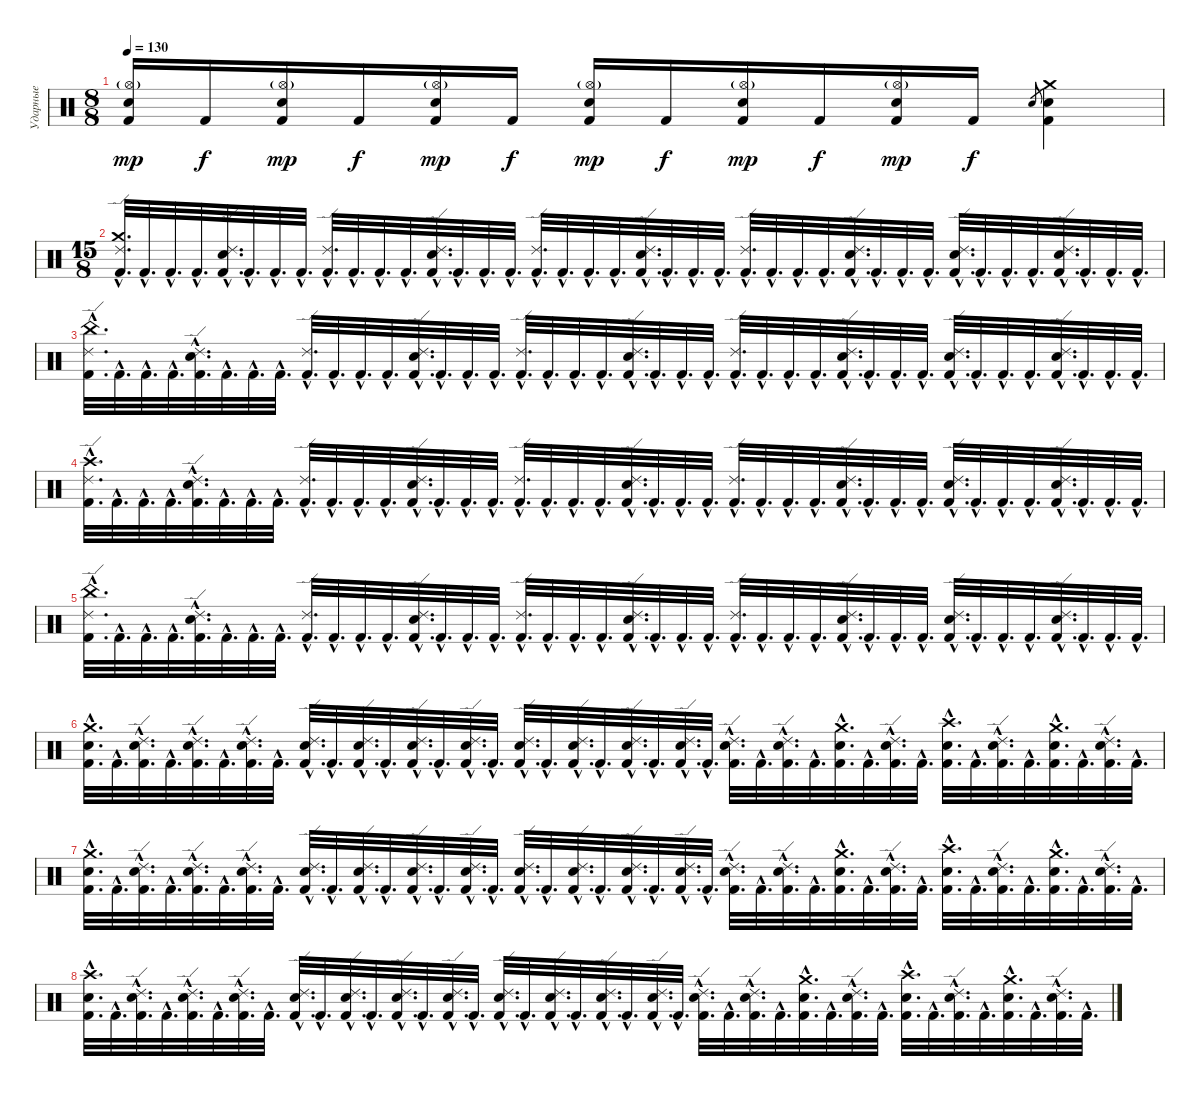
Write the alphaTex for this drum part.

\track ("Ударные" "Ударные") {instrument percussion}
\staff {score}
\articulation defaults
\ts (8 8)
\tempo 130
\clef neutral
\ks c
("Electric Snare (hit)" "Hi-Hat (open)"{g} "Kick (hit) 2").16{dy mp} "Kick (hit) 2".16{dy f} ("Electric Snare (hit)" "Hi-Hat (open)"{g} "Kick (hit) 2").16{dy mp} "Kick (hit) 2".16{dy f} ("Electric Snare (hit)" "Hi-Hat (open)"{g} "Kick (hit) 2").16{dy mp} "Kick (hit) 2".16{dy f} ("Electric Snare (hit)" "Hi-Hat (open)"{g} "Kick (hit) 2").16{dy mp} "Kick (hit) 2".16{dy f} ("Electric Snare (hit)" "Hi-Hat (open)"{g} "Kick (hit) 2").16{dy mp} "Kick (hit) 2".16{dy f} ("Electric Snare (hit)" "Hi-Hat (open)"{g} "Kick (hit) 2").16{dy mp} "Kick (hit) 2".16{dy f} "Electric Snare (hit)".8{gr} ("Electric Snare (hit)" "Crash medium (hit)" "Kick (hit) 2").4 |
\ts (15 8)
("Crash medium (hit)"{hac} "Ride (edge) 2"{hac} "Kick (hit) 2"{hac}).32{d} "Kick (hit) 2"{hac}.32{d} "Kick (hit) 2"{hac}.32{d} "Kick (hit) 2"{hac}.32{d} ("Electric Snare (hit)"{hac} "Ride (edge) 2"{hac} "Kick (hit) 2"{hac}).32{d} "Kick (hit) 2"{hac}.32{d} "Kick (hit) 2"{hac}.32{d} "Kick (hit) 2"{hac}.32{d} ("Ride (edge) 2"{hac} "Kick (hit) 2"{hac}).32{d} "Kick (hit) 2"{hac}.32{d} "Kick (hit) 2"{hac}.32{d} "Kick (hit) 2"{hac}.32{d} ("Electric Snare (hit)"{hac} "Ride (edge) 2"{hac} "Kick (hit) 2"{hac}).32{d} "Kick (hit) 2"{hac}.32{d} "Kick (hit) 2"{hac}.32{d} "Kick (hit) 2"{hac}.32{d} ("Ride (edge) 2"{hac} "Kick (hit) 2"{hac}).32{d} "Kick (hit) 2"{hac}.32{d} "Kick (hit) 2"{hac}.32{d} "Kick (hit) 2"{hac}.32{d} ("Electric Snare (hit)"{hac} "Ride (edge) 2"{hac} "Kick (hit) 2"{hac}).32{d} "Kick (hit) 2"{hac}.32{d} "Kick (hit) 2"{hac}.32{d} "Kick (hit) 2"{hac}.32{d} ("Ride (edge) 2"{hac} "Kick (hit) 2"{hac}).32{d} "Kick (hit) 2"{hac}.32{d} "Kick (hit) 2"{hac}.32{d} "Kick (hit) 2"{hac}.32{d} ("Electric Snare (hit)"{hac} "Ride (edge) 2"{hac} "Kick (hit) 2"{hac}).32{d} "Kick (hit) 2"{hac}.32{d} "Kick (hit) 2"{hac}.32{d} "Kick (hit) 2"{hac}.32{d} ("Electric Snare (hit)"{hac} "Ride (edge) 2"{hac} "Kick (hit) 2"{hac}).32{d} "Kick (hit) 2"{hac}.32{d} "Kick (hit) 2"{hac}.32{d} "Kick (hit) 2"{hac}.32{d} ("Electric Snare (hit)"{hac} "Ride (edge) 2"{hac} "Kick (hit) 2"{hac}).32{d} "Kick (hit) 2"{hac}.32{d} "Kick (hit) 2"{hac}.32{d} "Kick (hit) 2"{hac}.32{d} |
("China (hit)"{hac} "Ride (edge) 2"{hac} "Kick (hit) 2"{hac}).32{d} "Kick (hit) 2"{hac}.32{d} "Kick (hit) 2"{hac}.32{d} "Kick (hit) 2"{hac}.32{d} ("Electric Snare (hit)"{hac} "Ride (edge) 2"{hac} "Kick (hit) 2"{hac}).32{d} "Kick (hit) 2"{hac}.32{d} "Kick (hit) 2"{hac}.32{d} "Kick (hit) 2"{hac}.32{d} ("Ride (edge) 2"{hac} "Kick (hit) 2"{hac}).32{d} "Kick (hit) 2"{hac}.32{d} "Kick (hit) 2"{hac}.32{d} "Kick (hit) 2"{hac}.32{d} ("Electric Snare (hit)"{hac} "Ride (edge) 2"{hac} "Kick (hit) 2"{hac}).32{d} "Kick (hit) 2"{hac}.32{d} "Kick (hit) 2"{hac}.32{d} "Kick (hit) 2"{hac}.32{d} ("Ride (edge) 2"{hac} "Kick (hit) 2"{hac}).32{d} "Kick (hit) 2"{hac}.32{d} "Kick (hit) 2"{hac}.32{d} "Kick (hit) 2"{hac}.32{d} ("Electric Snare (hit)"{hac} "Ride (edge) 2"{hac} "Kick (hit) 2"{hac}).32{d} "Kick (hit) 2"{hac}.32{d} "Kick (hit) 2"{hac}.32{d} "Kick (hit) 2"{hac}.32{d} ("Ride (edge) 2"{hac} "Kick (hit) 2"{hac}).32{d} "Kick (hit) 2"{hac}.32{d} "Kick (hit) 2"{hac}.32{d} "Kick (hit) 2"{hac}.32{d} ("Electric Snare (hit)"{hac} "Ride (edge) 2"{hac} "Kick (hit) 2"{hac}).32{d} "Kick (hit) 2"{hac}.32{d} "Kick (hit) 2"{hac}.32{d} "Kick (hit) 2"{hac}.32{d} ("Electric Snare (hit)"{hac} "Ride (edge) 2"{hac} "Kick (hit) 2"{hac}).32{d} "Kick (hit) 2"{hac}.32{d} "Kick (hit) 2"{hac}.32{d} "Kick (hit) 2"{hac}.32{d} ("Electric Snare (hit)"{hac} "Ride (edge) 2"{hac} "Kick (hit) 2"{hac}).32{d} "Kick (hit) 2"{hac}.32{d} "Kick (hit) 2"{hac}.32{d} "Kick (hit) 2"{hac}.32{d} |
("Crash high (hit)"{hac} "Ride (edge) 2"{hac} "Kick (hit) 2"{hac}).32{d} "Kick (hit) 2"{hac}.32{d} "Kick (hit) 2"{hac}.32{d} "Kick (hit) 2"{hac}.32{d} ("Electric Snare (hit)"{hac} "Ride (edge) 2"{hac} "Kick (hit) 2"{hac}).32{d} "Kick (hit) 2"{hac}.32{d} "Kick (hit) 2"{hac}.32{d} "Kick (hit) 2"{hac}.32{d} ("Ride (edge) 2"{hac} "Kick (hit) 2"{hac}).32{d} "Kick (hit) 2"{hac}.32{d} "Kick (hit) 2"{hac}.32{d} "Kick (hit) 2"{hac}.32{d} ("Electric Snare (hit)"{hac} "Ride (edge) 2"{hac} "Kick (hit) 2"{hac}).32{d} "Kick (hit) 2"{hac}.32{d} "Kick (hit) 2"{hac}.32{d} "Kick (hit) 2"{hac}.32{d} ("Ride (edge) 2"{hac} "Kick (hit) 2"{hac}).32{d} "Kick (hit) 2"{hac}.32{d} "Kick (hit) 2"{hac}.32{d} "Kick (hit) 2"{hac}.32{d} ("Electric Snare (hit)"{hac} "Ride (edge) 2"{hac} "Kick (hit) 2"{hac}).32{d} "Kick (hit) 2"{hac}.32{d} "Kick (hit) 2"{hac}.32{d} "Kick (hit) 2"{hac}.32{d} ("Ride (edge) 2"{hac} "Kick (hit) 2"{hac}).32{d} "Kick (hit) 2"{hac}.32{d} "Kick (hit) 2"{hac}.32{d} "Kick (hit) 2"{hac}.32{d} ("Electric Snare (hit)"{hac} "Ride (edge) 2"{hac} "Kick (hit) 2"{hac}).32{d} "Kick (hit) 2"{hac}.32{d} "Kick (hit) 2"{hac}.32{d} "Kick (hit) 2"{hac}.32{d} ("Electric Snare (hit)"{hac} "Ride (edge) 2"{hac} "Kick (hit) 2"{hac}).32{d} "Kick (hit) 2"{hac}.32{d} "Kick (hit) 2"{hac}.32{d} "Kick (hit) 2"{hac}.32{d} ("Electric Snare (hit)"{hac} "Ride (edge) 2"{hac} "Kick (hit) 2"{hac}).32{d} "Kick (hit) 2"{hac}.32{d} "Kick (hit) 2"{hac}.32{d} "Kick (hit) 2"{hac}.32{d} |
("China (hit)"{hac} "Ride (edge) 2"{hac} "Kick (hit) 2"{hac}).32{d} "Kick (hit) 2"{hac}.32{d} "Kick (hit) 2"{hac}.32{d} "Kick (hit) 2"{hac}.32{d} ("Electric Snare (hit)"{hac} "Ride (edge) 2"{hac} "Kick (hit) 2"{hac}).32{d} "Kick (hit) 2"{hac}.32{d} "Kick (hit) 2"{hac}.32{d} "Kick (hit) 2"{hac}.32{d} ("Ride (edge) 2"{hac} "Kick (hit) 2"{hac}).32{d} "Kick (hit) 2"{hac}.32{d} "Kick (hit) 2"{hac}.32{d} "Kick (hit) 2"{hac}.32{d} ("Electric Snare (hit)"{hac} "Ride (edge) 2"{hac} "Kick (hit) 2"{hac}).32{d} "Kick (hit) 2"{hac}.32{d} "Kick (hit) 2"{hac}.32{d} "Kick (hit) 2"{hac}.32{d} ("Ride (edge) 2"{hac} "Kick (hit) 2"{hac}).32{d} "Kick (hit) 2"{hac}.32{d} "Kick (hit) 2"{hac}.32{d} "Kick (hit) 2"{hac}.32{d} ("Electric Snare (hit)"{hac} "Ride (edge) 2"{hac} "Kick (hit) 2"{hac}).32{d} "Kick (hit) 2"{hac}.32{d} "Kick (hit) 2"{hac}.32{d} "Kick (hit) 2"{hac}.32{d} ("Ride (edge) 2"{hac} "Kick (hit) 2"{hac}).32{d} "Kick (hit) 2"{hac}.32{d} "Kick (hit) 2"{hac}.32{d} "Kick (hit) 2"{hac}.32{d} ("Electric Snare (hit)"{hac} "Ride (edge) 2"{hac} "Kick (hit) 2"{hac}).32{d} "Kick (hit) 2"{hac}.32{d} "Kick (hit) 2"{hac}.32{d} "Kick (hit) 2"{hac}.32{d} ("Electric Snare (hit)"{hac} "Ride (edge) 2"{hac} "Kick (hit) 2"{hac}).32{d} "Kick (hit) 2"{hac}.32{d} "Kick (hit) 2"{hac}.32{d} "Kick (hit) 2"{hac}.32{d} ("Electric Snare (hit)"{hac} "Ride (edge) 2"{hac} "Kick (hit) 2"{hac}).32{d} "Kick (hit) 2"{hac}.32{d} "Kick (hit) 2"{hac}.32{d} "Kick (hit) 2"{hac}.32{d} |
("Electric Snare (hit)"{hac} "Crash medium (hit)"{hac} "Kick (hit) 2"{hac}).32{d} "Kick (hit) 2"{hac}.32{d} ("Electric Snare (hit)"{hac} "Ride (edge) 2"{hac} "Kick (hit) 2"{hac}).32{d} "Kick (hit) 2"{hac}.32{d} ("Electric Snare (hit)"{hac} "Ride (edge) 2"{hac} "Kick (hit) 2"{hac}).32{d} "Kick (hit) 2"{hac}.32{d} ("Electric Snare (hit)"{hac} "Ride (edge) 2"{hac} "Kick (hit) 2"{hac}).32{d} "Kick (hit) 2"{hac}.32{d} ("Electric Snare (hit)"{hac} "Ride (edge) 2"{hac} "Kick (hit) 2"{hac}).32{d} "Kick (hit) 2"{hac}.32{d} ("Electric Snare (hit)"{hac} "Ride (edge) 2"{hac} "Kick (hit) 2"{hac}).32{d} "Kick (hit) 2"{hac}.32{d} ("Electric Snare (hit)"{hac} "Ride (edge) 2"{hac} "Kick (hit) 2"{hac}).32{d} "Kick (hit) 2"{hac}.32{d} ("Electric Snare (hit)"{hac} "Ride (edge) 2"{hac} "Kick (hit) 2"{hac}).32{d} "Kick (hit) 2"{hac}.32{d} ("Electric Snare (hit)"{hac} "Ride (edge) 2"{hac} "Kick (hit) 2"{hac}).32{d} "Kick (hit) 2"{hac}.32{d} ("Electric Snare (hit)"{hac} "Ride (edge) 2"{hac} "Kick (hit) 2"{hac}).32{d} "Kick (hit) 2"{hac}.32{d} ("Electric Snare (hit)"{hac} "Ride (edge) 2"{hac} "Kick (hit) 2"{hac}).32{d} "Kick (hit) 2"{hac}.32{d} ("Electric Snare (hit)"{hac} "Ride (edge) 2"{hac} "Kick (hit) 2"{hac}).32{d} "Kick (hit) 2"{hac}.32{d} ("Electric Snare (hit)"{hac} "Ride (edge) 2"{hac} "Kick (hit) 2"{hac}).32{d} "Kick (hit) 2"{hac}.32{d} ("Electric Snare (hit)"{hac} "Ride (edge) 2"{hac} "Kick (hit) 2"{hac}).32{d} "Kick (hit) 2"{hac}.32{d} ("Electric Snare (hit)"{hac} "Crash medium (hit)"{hac} "Kick (hit) 2"{hac}).32{d} "Kick (hit) 2"{hac}.32{d} ("Electric Snare (hit)"{hac} "Ride (edge) 2"{hac} "Kick (hit) 2"{hac}).32{d} "Kick (hit) 2"{hac}.32{d} ("Electric Snare (hit)"{hac} "Crash high (hit)"{hac} "Kick (hit) 2"{hac}).32{d} "Kick (hit) 2"{hac}.32{d} ("Electric Snare (hit)"{hac} "Ride (edge) 2"{hac} "Kick (hit) 2"{hac}).32{d} "Kick (hit) 2"{hac}.32{d} ("Electric Snare (hit)"{hac} "Crash medium (hit)"{hac} "Kick (hit) 2"{hac}).32{d} "Kick (hit) 2"{hac}.32{d} ("Electric Snare (hit)"{hac} "Ride (edge) 2"{hac} "Kick (hit) 2"{hac}).32{d} "Kick (hit) 2"{hac}.32{d} |
("Electric Snare (hit)"{hac} "Crash medium (hit)"{hac} "Kick (hit) 2"{hac}).32{d} "Kick (hit) 2"{hac}.32{d} ("Electric Snare (hit)"{hac} "Ride (edge) 2"{hac} "Kick (hit) 2"{hac}).32{d} "Kick (hit) 2"{hac}.32{d} ("Electric Snare (hit)"{hac} "Ride (edge) 2"{hac} "Kick (hit) 2"{hac}).32{d} "Kick (hit) 2"{hac}.32{d} ("Electric Snare (hit)"{hac} "Ride (edge) 2"{hac} "Kick (hit) 2"{hac}).32{d} "Kick (hit) 2"{hac}.32{d} ("Electric Snare (hit)"{hac} "Ride (edge) 2"{hac} "Kick (hit) 2"{hac}).32{d} "Kick (hit) 2"{hac}.32{d} ("Electric Snare (hit)"{hac} "Ride (edge) 2"{hac} "Kick (hit) 2"{hac}).32{d} "Kick (hit) 2"{hac}.32{d} ("Electric Snare (hit)"{hac} "Ride (edge) 2"{hac} "Kick (hit) 2"{hac}).32{d} "Kick (hit) 2"{hac}.32{d} ("Electric Snare (hit)"{hac} "Ride (edge) 2"{hac} "Kick (hit) 2"{hac}).32{d} "Kick (hit) 2"{hac}.32{d} ("Electric Snare (hit)"{hac} "Ride (edge) 2"{hac} "Kick (hit) 2"{hac}).32{d} "Kick (hit) 2"{hac}.32{d} ("Electric Snare (hit)"{hac} "Ride (edge) 2"{hac} "Kick (hit) 2"{hac}).32{d} "Kick (hit) 2"{hac}.32{d} ("Electric Snare (hit)"{hac} "Ride (edge) 2"{hac} "Kick (hit) 2"{hac}).32{d} "Kick (hit) 2"{hac}.32{d} ("Electric Snare (hit)"{hac} "Ride (edge) 2"{hac} "Kick (hit) 2"{hac}).32{d} "Kick (hit) 2"{hac}.32{d} ("Electric Snare (hit)"{hac} "Ride (edge) 2"{hac} "Kick (hit) 2"{hac}).32{d} "Kick (hit) 2"{hac}.32{d} ("Electric Snare (hit)"{hac} "Ride (edge) 2"{hac} "Kick (hit) 2"{hac}).32{d} "Kick (hit) 2"{hac}.32{d} ("Electric Snare (hit)"{hac} "Crash medium (hit)"{hac} "Kick (hit) 2"{hac}).32{d} "Kick (hit) 2"{hac}.32{d} ("Electric Snare (hit)"{hac} "Ride (edge) 2"{hac} "Kick (hit) 2"{hac}).32{d} "Kick (hit) 2"{hac}.32{d} ("Electric Snare (hit)"{hac} "Crash high (hit)"{hac} "Kick (hit) 2"{hac}).32{d} "Kick (hit) 2"{hac}.32{d} ("Electric Snare (hit)"{hac} "Ride (edge) 2"{hac} "Kick (hit) 2"{hac}).32{d} "Kick (hit) 2"{hac}.32{d} ("Electric Snare (hit)"{hac} "Crash medium (hit)"{hac} "Kick (hit) 2"{hac}).32{d} "Kick (hit) 2"{hac}.32{d} ("Electric Snare (hit)"{hac} "Ride (edge) 2"{hac} "Kick (hit) 2"{hac}).32{d} "Kick (hit) 2"{hac}.32{d} |
("Electric Snare (hit)"{hac} "Crash high (hit)"{hac} "Kick (hit) 2"{hac}).32{d} "Kick (hit) 2"{hac}.32{d} ("Electric Snare (hit)"{hac} "Ride (edge) 2"{hac} "Kick (hit) 2"{hac}).32{d} "Kick (hit) 2"{hac}.32{d} ("Electric Snare (hit)"{hac} "Ride (edge) 2"{hac} "Kick (hit) 2"{hac}).32{d} "Kick (hit) 2"{hac}.32{d} ("Electric Snare (hit)"{hac} "Ride (edge) 2"{hac} "Kick (hit) 2"{hac}).32{d} "Kick (hit) 2"{hac}.32{d} ("Electric Snare (hit)"{hac} "Ride (edge) 2"{hac} "Kick (hit) 2"{hac}).32{d} "Kick (hit) 2"{hac}.32{d} ("Electric Snare (hit)"{hac} "Ride (edge) 2"{hac} "Kick (hit) 2"{hac}).32{d} "Kick (hit) 2"{hac}.32{d} ("Electric Snare (hit)"{hac} "Ride (edge) 2"{hac} "Kick (hit) 2"{hac}).32{d} "Kick (hit) 2"{hac}.32{d} ("Electric Snare (hit)"{hac} "Ride (edge) 2"{hac} "Kick (hit) 2"{hac}).32{d} "Kick (hit) 2"{hac}.32{d} ("Electric Snare (hit)"{hac} "Ride (edge) 2"{hac} "Kick (hit) 2"{hac}).32{d} "Kick (hit) 2"{hac}.32{d} ("Electric Snare (hit)"{hac} "Ride (edge) 2"{hac} "Kick (hit) 2"{hac}).32{d} "Kick (hit) 2"{hac}.32{d} ("Electric Snare (hit)"{hac} "Ride (edge) 2"{hac} "Kick (hit) 2"{hac}).32{d} "Kick (hit) 2"{hac}.32{d} ("Electric Snare (hit)"{hac} "Ride (edge) 2"{hac} "Kick (hit) 2"{hac}).32{d} "Kick (hit) 2"{hac}.32{d} ("Electric Snare (hit)"{hac} "Ride (edge) 2"{hac} "Kick (hit) 2"{hac}).32{d} "Kick (hit) 2"{hac}.32{d} ("Electric Snare (hit)"{hac} "Ride (edge) 2"{hac} "Kick (hit) 2"{hac}).32{d} "Kick (hit) 2"{hac}.32{d} ("Electric Snare (hit)"{hac} "Crash medium (hit)"{hac} "Kick (hit) 2"{hac}).32{d} "Kick (hit) 2"{hac}.32{d} ("Electric Snare (hit)"{hac} "Ride (edge) 2"{hac} "Kick (hit) 2"{hac}).32{d} "Kick (hit) 2"{hac}.32{d} ("Electric Snare (hit)"{hac} "Crash high (hit)"{hac} "Kick (hit) 2"{hac}).32{d} "Kick (hit) 2"{hac}.32{d} ("Electric Snare (hit)"{hac} "Ride (edge) 2"{hac} "Kick (hit) 2"{hac}).32{d} "Kick (hit) 2"{hac}.32{d} ("Electric Snare (hit)"{hac} "Crash medium (hit)"{hac} "Kick (hit) 2"{hac}).32{d} "Kick (hit) 2"{hac}.32{d} ("Electric Snare (hit)"{hac} "Ride (edge) 2"{hac} "Kick (hit) 2"{hac}).32{d} "Kick (hit) 2"{hac}.32{d}
